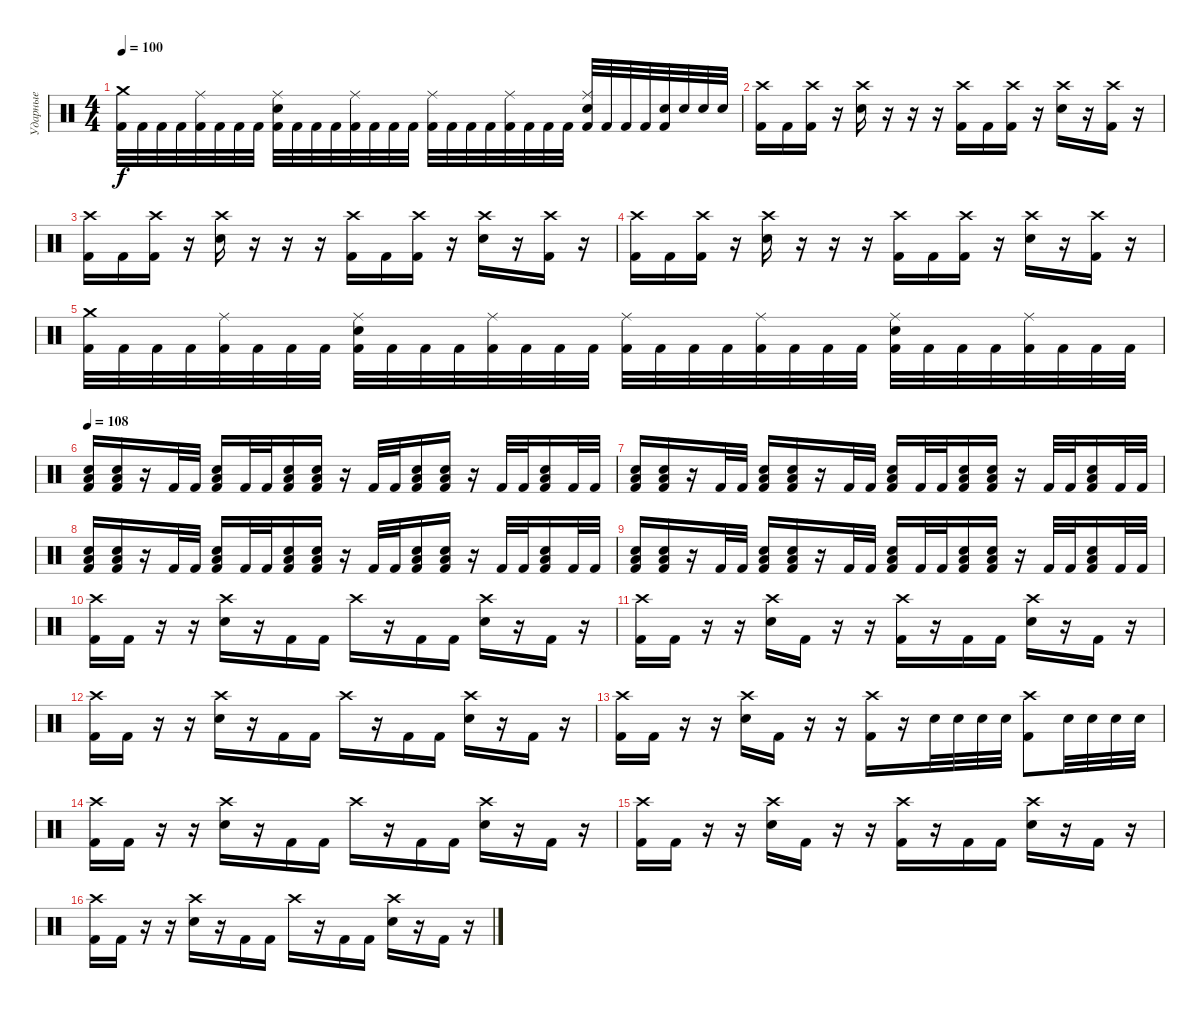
\track ("Ударные" "Ударные") {instrument percussion}
\staff {score}
\articulation defaults
\ts (4 4)
\tempo 100
\clef neutral
\ks c
("Crash medium (hit)" "Kick (hit) 2").32{dy f} "Kick (hit) 2".32 "Kick (hit) 2".32 "Kick (hit) 2".32 ("Ride (middle)" "Kick (hit) 2").32 "Kick (hit) 2".32 "Kick (hit) 2".32 "Kick (hit) 2".32 ("Ride (middle)" "Electric Snare (hit)" "Kick (hit) 2").32 "Kick (hit) 2".32 "Kick (hit) 2".32 "Kick (hit) 2".32 ("Ride (middle)" "Kick (hit) 2").32 "Kick (hit) 2".32 "Kick (hit) 2".32 "Kick (hit) 2".32 ("Ride (middle)" "Kick (hit) 2").32 "Kick (hit) 2".32 "Kick (hit) 2".32 "Kick (hit) 2".32 ("Ride (middle)" "Kick (hit) 2").32 "Kick (hit) 2".32 "Kick (hit) 2".32 "Kick (hit) 2".32 ("Ride (middle)" "Electric Snare (hit)" "Kick (hit) 2").32 "Kick (hit) 2".32 "Kick (hit) 2".32 "Kick (hit) 2".32 ("Electric Snare (hit)" "Kick (hit) 2").32 "Electric Snare (hit)".32 "Electric Snare (hit)".32 "Electric Snare (hit)".32 |
("Crash high (hit)" "Kick (hit) 2").16 "Kick (hit) 2".16 ("Crash high (hit)" "Kick (hit) 2").16 r.16 ("Crash high (hit)" "Electric Snare (hit)").16 r.16 r.16 r.16 ("Crash high (hit)" "Kick (hit) 2").16 "Kick (hit) 2".16 ("Crash high (hit)" "Kick (hit) 2").16 r.16 ("Crash high (hit)" "Electric Snare (hit)").16 r.16 ("Crash high (hit)" "Kick (hit) 2").16 r.16 |
("Crash high (hit)" "Kick (hit) 2").16 "Kick (hit) 2".16 ("Crash high (hit)" "Kick (hit) 2").16 r.16 ("Crash high (hit)" "Electric Snare (hit)").16 r.16 r.16 r.16 ("Crash high (hit)" "Kick (hit) 2").16 "Kick (hit) 2".16 ("Crash high (hit)" "Kick (hit) 2").16 r.16 ("Crash high (hit)" "Electric Snare (hit)").16 r.16 ("Crash high (hit)" "Kick (hit) 2").16 r.16 |
("Crash high (hit)" "Kick (hit) 2").16 "Kick (hit) 2".16 ("Crash high (hit)" "Kick (hit) 2").16 r.16 ("Crash high (hit)" "Electric Snare (hit)").16 r.16 r.16 r.16 ("Crash high (hit)" "Kick (hit) 2").16 "Kick (hit) 2".16 ("Crash high (hit)" "Kick (hit) 2").16 r.16 ("Crash high (hit)" "Electric Snare (hit)").16 r.16 ("Crash high (hit)" "Kick (hit) 2").16 r.16 |
("Crash medium (hit)" "Kick (hit) 2").32 "Kick (hit) 2".32 "Kick (hit) 2".32 "Kick (hit) 2".32 ("Ride (middle)" "Kick (hit) 2").32 "Kick (hit) 2".32 "Kick (hit) 2".32 "Kick (hit) 2".32 ("Ride (middle)" "Electric Snare (hit)" "Kick (hit) 2").32 "Kick (hit) 2".32 "Kick (hit) 2".32 "Kick (hit) 2".32 ("Ride (middle)" "Kick (hit) 2").32 "Kick (hit) 2".32 "Kick (hit) 2".32 "Kick (hit) 2".32 ("Ride (middle)" "Kick (hit) 2").32 "Kick (hit) 2".32 "Kick (hit) 2".32 "Kick (hit) 2".32 ("Ride (middle)" "Kick (hit) 2").32 "Kick (hit) 2".32 "Kick (hit) 2".32 "Kick (hit) 2".32 ("Ride (middle)" "Electric Snare (hit)" "Kick (hit) 2").32 "Kick (hit) 2".32 "Kick (hit) 2".32 "Kick (hit) 2".32 ("Ride (middle)" "Kick (hit) 2").32 "Kick (hit) 2".32 "Kick (hit) 2".32 "Kick (hit) 2".32 |
\tempo 108
("Low Floor Tom (hit)" "Electric Snare (hit)" "Kick (hit) 2").16 ("Low Floor Tom (hit)" "Electric Snare (hit)" "Kick (hit) 2").16 r.16 "Kick (hit) 2".32 "Kick (hit) 2".32 ("Low Floor Tom (hit)" "Electric Snare (hit)" "Kick (hit) 2").16 "Kick (hit) 2".32 "Kick (hit) 2".32 ("Low Floor Tom (hit)" "Electric Snare (hit)" "Kick (hit) 2").16 ("Low Floor Tom (hit)" "Electric Snare (hit)" "Kick (hit) 2").16 r.16 "Kick (hit) 2".32 "Kick (hit) 2".32 ("Low Floor Tom (hit)" "Electric Snare (hit)" "Kick (hit) 2").16 ("Low Floor Tom (hit)" "Electric Snare (hit)" "Kick (hit) 2").16 r.16 "Kick (hit) 2".32 "Kick (hit) 2".32 ("Low Floor Tom (hit)" "Electric Snare (hit)" "Kick (hit) 2").16 "Kick (hit) 2".32 "Kick (hit) 2".32 |
("Low Floor Tom (hit)" "Electric Snare (hit)" "Kick (hit) 2").16 ("Low Floor Tom (hit)" "Electric Snare (hit)" "Kick (hit) 2").16 r.16 "Kick (hit) 2".32 "Kick (hit) 2".32 ("Low Floor Tom (hit)" "Electric Snare (hit)" "Kick (hit) 2").16 ("Low Floor Tom (hit)" "Electric Snare (hit)" "Kick (hit) 2").16 r.16 "Kick (hit) 2".32 "Kick (hit) 2".32 ("Low Floor Tom (hit)" "Electric Snare (hit)" "Kick (hit) 2").16 "Kick (hit) 2".32 "Kick (hit) 2".32 ("Low Floor Tom (hit)" "Electric Snare (hit)" "Kick (hit) 2").16 ("Low Floor Tom (hit)" "Electric Snare (hit)" "Kick (hit) 2").16 r.16 "Kick (hit) 2".32 "Kick (hit) 2".32 ("Low Floor Tom (hit)" "Electric Snare (hit)" "Kick (hit) 2").16 "Kick (hit) 2".32 "Kick (hit) 2".32 |
("Low Floor Tom (hit)" "Electric Snare (hit)" "Kick (hit) 2").16 ("Low Floor Tom (hit)" "Electric Snare (hit)" "Kick (hit) 2").16 r.16 "Kick (hit) 2".32 "Kick (hit) 2".32 ("Low Floor Tom (hit)" "Electric Snare (hit)" "Kick (hit) 2").16 "Kick (hit) 2".32 "Kick (hit) 2".32 ("Low Floor Tom (hit)" "Electric Snare (hit)" "Kick (hit) 2").16 ("Low Floor Tom (hit)" "Electric Snare (hit)" "Kick (hit) 2").16 r.16 "Kick (hit) 2".32 "Kick (hit) 2".32 ("Low Floor Tom (hit)" "Electric Snare (hit)" "Kick (hit) 2").16 ("Low Floor Tom (hit)" "Electric Snare (hit)" "Kick (hit) 2").16 r.16 "Kick (hit) 2".32 "Kick (hit) 2".32 ("Low Floor Tom (hit)" "Electric Snare (hit)" "Kick (hit) 2").16 "Kick (hit) 2".32 "Kick (hit) 2".32 |
("Low Floor Tom (hit)" "Electric Snare (hit)" "Kick (hit) 2").16 ("Low Floor Tom (hit)" "Electric Snare (hit)" "Kick (hit) 2").16 r.16 "Kick (hit) 2".32 "Kick (hit) 2".32 ("Low Floor Tom (hit)" "Electric Snare (hit)" "Kick (hit) 2").16 ("Low Floor Tom (hit)" "Electric Snare (hit)" "Kick (hit) 2").16 r.16 "Kick (hit) 2".32 "Kick (hit) 2".32 ("Low Floor Tom (hit)" "Electric Snare (hit)" "Kick (hit) 2").16 "Kick (hit) 2".32 "Kick (hit) 2".32 ("Low Floor Tom (hit)" "Electric Snare (hit)" "Kick (hit) 2").16 ("Low Floor Tom (hit)" "Electric Snare (hit)" "Kick (hit) 2").16 r.16 "Kick (hit) 2".32 "Kick (hit) 2".32 ("Low Floor Tom (hit)" "Electric Snare (hit)" "Kick (hit) 2").16 "Kick (hit) 2".32 "Kick (hit) 2".32 |
("Crash high (hit)" "Kick (hit) 2").16 "Kick (hit) 2".16 r.16 r.16 ("Crash high (hit)" "Electric Snare (hit)").16 r.16 "Kick (hit) 2".16 "Kick (hit) 2".16 "Crash high (hit)".16 r.16 "Kick (hit) 2".16 "Kick (hit) 2".16 ("Crash high (hit)" "Electric Snare (hit)").16 r.16 "Kick (hit) 2".16 r.16 |
("Crash high (hit)" "Kick (hit) 2").16 "Kick (hit) 2".16 r.16 r.16 ("Crash high (hit)" "Electric Snare (hit)").16 "Kick (hit) 2".16 r.16 r.16 ("Crash high (hit)" "Kick (hit) 2").16 r.16 "Kick (hit) 2".16 "Kick (hit) 2".16 ("Crash high (hit)" "Electric Snare (hit)").16 r.16 "Kick (hit) 2".16 r.16 |
("Crash high (hit)" "Kick (hit) 2").16 "Kick (hit) 2".16 r.16 r.16 ("Crash high (hit)" "Electric Snare (hit)").16 r.16 "Kick (hit) 2".16 "Kick (hit) 2".16 "Crash high (hit)".16 r.16 "Kick (hit) 2".16 "Kick (hit) 2".16 ("Crash high (hit)" "Electric Snare (hit)").16 r.16 "Kick (hit) 2".16 r.16 |
("Crash high (hit)" "Kick (hit) 2").16 "Kick (hit) 2".16 r.16 r.16 ("Crash high (hit)" "Electric Snare (hit)").16 "Kick (hit) 2".16 r.16 r.16 ("Crash high (hit)" "Kick (hit) 2").16 r.16 "Electric Snare (hit)".32 "Electric Snare (hit)".32 "Electric Snare (hit)".32 "Electric Snare (hit)".32 ("Crash high (hit)" "Kick (hit) 2").8 "Electric Snare (hit)".32 "Electric Snare (hit)".32 "Electric Snare (hit)".32 "Electric Snare (hit)".32 |
("Crash high (hit)" "Kick (hit) 2").16 "Kick (hit) 2".16 r.16 r.16 ("Crash high (hit)" "Electric Snare (hit)").16 r.16 "Kick (hit) 2".16 "Kick (hit) 2".16 "Crash high (hit)".16 r.16 "Kick (hit) 2".16 "Kick (hit) 2".16 ("Crash high (hit)" "Electric Snare (hit)").16 r.16 "Kick (hit) 2".16 r.16 |
("Crash high (hit)" "Kick (hit) 2").16 "Kick (hit) 2".16 r.16 r.16 ("Crash high (hit)" "Electric Snare (hit)").16 "Kick (hit) 2".16 r.16 r.16 ("Crash high (hit)" "Kick (hit) 2").16 r.16 "Kick (hit) 2".16 "Kick (hit) 2".16 ("Crash high (hit)" "Electric Snare (hit)").16 r.16 "Kick (hit) 2".16 r.16 |
("Crash high (hit)" "Kick (hit) 2").16 "Kick (hit) 2".16 r.16 r.16 ("Crash high (hit)" "Electric Snare (hit)").16 r.16 "Kick (hit) 2".16 "Kick (hit) 2".16 "Crash high (hit)".16 r.16 "Kick (hit) 2".16 "Kick (hit) 2".16 ("Crash high (hit)" "Electric Snare (hit)").16 r.16 "Kick (hit) 2".16 r.16
